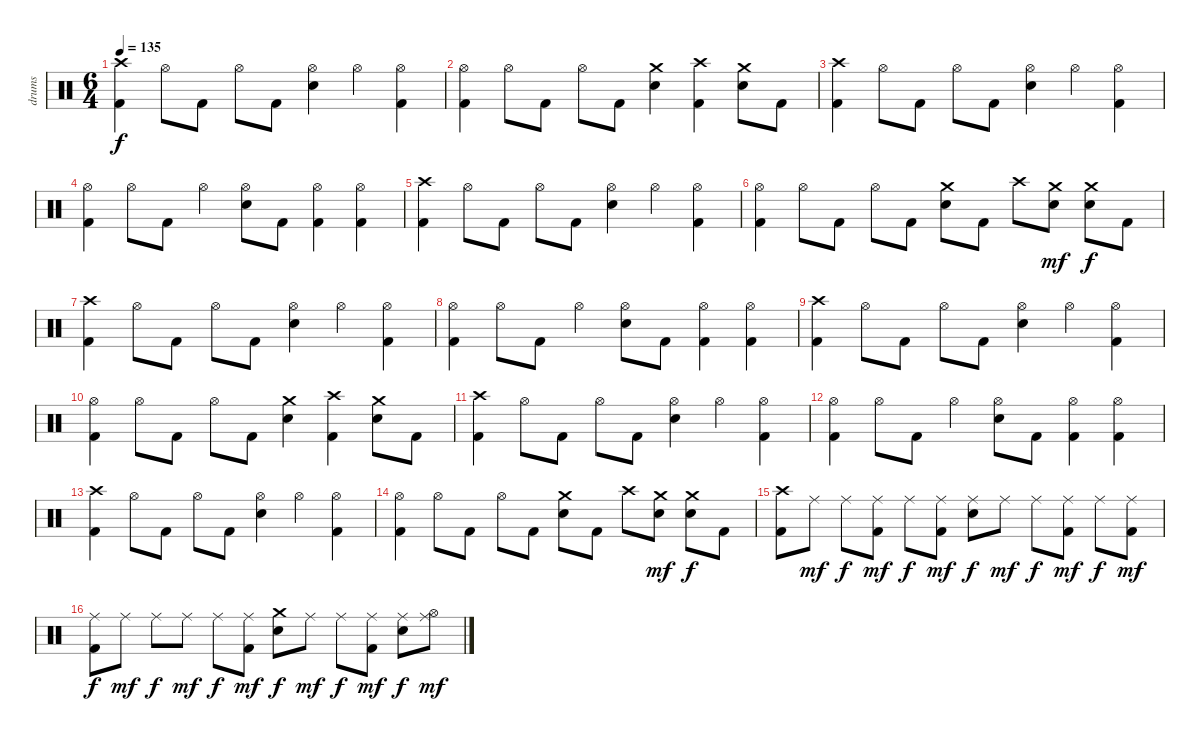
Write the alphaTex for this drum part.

\track ("drums" "drums") {instrument percussion}
\staff {score}
\articulation defaults
\ts (6 4)
\tempo 135
\clef neutral
\ks c
("Crash high (hit)" "Kick (hit) 2").4{dy f} "Hi-Hat (open)".8 "Kick (hit) 2".8 "Hi-Hat (open)".8 "Kick (hit) 2".8 ("Hi-Hat (open)" "Electric Snare (hit)").4 "Hi-Hat (open)".4 ("Hi-Hat (open)" "Kick (hit) 2").4 |
("Hi-Hat (open)" "Kick (hit) 2").4 "Hi-Hat (open)".8 "Kick (hit) 2".8 "Hi-Hat (open)".8 "Kick (hit) 2".8 ("Crash medium (hit)" "Electric Snare (hit)").4 ("Crash high (hit)" "Kick (hit) 2").4 ("Crash medium (hit)" "Electric Snare (hit)").8 "Kick (hit) 2".8 |
("Crash high (hit)" "Kick (hit) 2").4 "Hi-Hat (open)".8 "Kick (hit) 2".8 "Hi-Hat (open)".8 "Kick (hit) 2".8 ("Hi-Hat (open)" "Electric Snare (hit)").4 "Hi-Hat (open)".4 ("Hi-Hat (open)" "Kick (hit) 2").4 |
("Hi-Hat (open)" "Kick (hit) 2").4 "Hi-Hat (open)".8 "Kick (hit) 2".8 "Hi-Hat (open)".4 ("Hi-Hat (open)" "Electric Snare (hit)").8 "Kick (hit) 2".8 ("Hi-Hat (open)" "Kick (hit) 2").4 ("Hi-Hat (open)" "Kick (hit) 2").4 |
("Crash high (hit)" "Kick (hit) 2").4 "Hi-Hat (open)".8 "Kick (hit) 2".8 "Hi-Hat (open)".8 "Kick (hit) 2".8 ("Hi-Hat (open)" "Electric Snare (hit)").4 "Hi-Hat (open)".4 ("Hi-Hat (open)" "Kick (hit) 2").4 |
("Hi-Hat (open)" "Kick (hit) 2").4 "Hi-Hat (open)".8 "Kick (hit) 2".8 "Hi-Hat (open)".8 "Kick (hit) 2".8 ("Crash medium (hit)" "Electric Snare (hit)").8 "Kick (hit) 2".8 "Crash high (hit)".8 ("Crash medium (hit)" "Electric Snare (hit)").8{dy mf} ("Crash medium (hit)" "Electric Snare (hit)").8{dy f} "Kick (hit) 2".8 |
("Crash high (hit)" "Kick (hit) 2").4 "Hi-Hat (open)".8 "Kick (hit) 2".8 "Hi-Hat (open)".8 "Kick (hit) 2".8 ("Hi-Hat (open)" "Electric Snare (hit)").4 "Hi-Hat (open)".4 ("Hi-Hat (open)" "Kick (hit) 2").4 |
("Hi-Hat (open)" "Kick (hit) 2").4 "Hi-Hat (open)".8 "Kick (hit) 2".8 "Hi-Hat (open)".4 ("Hi-Hat (open)" "Electric Snare (hit)").8 "Kick (hit) 2".8 ("Hi-Hat (open)" "Kick (hit) 2").4 ("Hi-Hat (open)" "Kick (hit) 2").4 |
("Crash high (hit)" "Kick (hit) 2").4 "Hi-Hat (open)".8 "Kick (hit) 2".8 "Hi-Hat (open)".8 "Kick (hit) 2".8 ("Hi-Hat (open)" "Electric Snare (hit)").4 "Hi-Hat (open)".4 ("Hi-Hat (open)" "Kick (hit) 2").4 |
("Hi-Hat (open)" "Kick (hit) 2").4 "Hi-Hat (open)".8 "Kick (hit) 2".8 "Hi-Hat (open)".8 "Kick (hit) 2".8 ("Crash medium (hit)" "Electric Snare (hit)").4 ("Crash high (hit)" "Kick (hit) 2").4 ("Crash medium (hit)" "Electric Snare (hit)").8 "Kick (hit) 2".8 |
("Crash high (hit)" "Kick (hit) 2").4 "Hi-Hat (open)".8 "Kick (hit) 2".8 "Hi-Hat (open)".8 "Kick (hit) 2".8 ("Hi-Hat (open)" "Electric Snare (hit)").4 "Hi-Hat (open)".4 ("Hi-Hat (open)" "Kick (hit) 2").4 |
("Hi-Hat (open)" "Kick (hit) 2").4 "Hi-Hat (open)".8 "Kick (hit) 2".8 "Hi-Hat (open)".4 ("Hi-Hat (open)" "Electric Snare (hit)").8 "Kick (hit) 2".8 ("Hi-Hat (open)" "Kick (hit) 2").4 ("Hi-Hat (open)" "Kick (hit) 2").4 |
("Crash high (hit)" "Kick (hit) 2").4 "Hi-Hat (open)".8 "Kick (hit) 2".8 "Hi-Hat (open)".8 "Kick (hit) 2".8 ("Hi-Hat (open)" "Electric Snare (hit)").4 "Hi-Hat (open)".4 ("Hi-Hat (open)" "Kick (hit) 2").4 |
("Hi-Hat (open)" "Kick (hit) 2").4 "Hi-Hat (open)".8 "Kick (hit) 2".8 "Hi-Hat (open)".8 "Kick (hit) 2".8 ("Crash medium (hit)" "Electric Snare (hit)").8 "Kick (hit) 2".8 "Crash high (hit)".8 ("Crash medium (hit)" "Electric Snare (hit)").8{dy mf} ("Crash medium (hit)" "Electric Snare (hit)").8{dy f} "Kick (hit) 2".8 |
("Crash high (hit)" "Kick (hit) 2").8 "Ride (middle)".8{dy mf} "Ride (middle)".8{dy f} ("Ride (middle)" "Kick (hit) 2").8{dy mf} "Ride (middle)".8{dy f} ("Ride (middle)" "Kick (hit) 2").8{dy mf} ("Ride (middle)" "Electric Snare (hit)").8{dy f} "Ride (middle)".8{dy mf} "Ride (middle)".8{dy f} ("Ride (middle)" "Kick (hit) 2").8{dy mf} "Ride (middle)".8{dy f} ("Ride (middle)" "Kick (hit) 2").8{dy mf} |
("Ride (middle)" "Kick (hit) 2").8{dy f} "Ride (middle)".8{dy mf} "Ride (middle)".8{dy f} "Ride (middle)".8{dy mf} "Ride (middle)".8{dy f} ("Ride (middle)" "Kick (hit) 2").8{dy mf} ("Crash medium (hit)" "Electric Snare (hit)").8{dy f} "Ride (middle)".8{dy mf} "Ride (middle)".8{dy f} ("Ride (middle)" "Kick (hit) 2").8{dy mf} ("Ride (middle)" "Electric Snare (hit)").8{dy f} ("Ride (middle)" "Hi-Hat (open)").8{dy mf}
